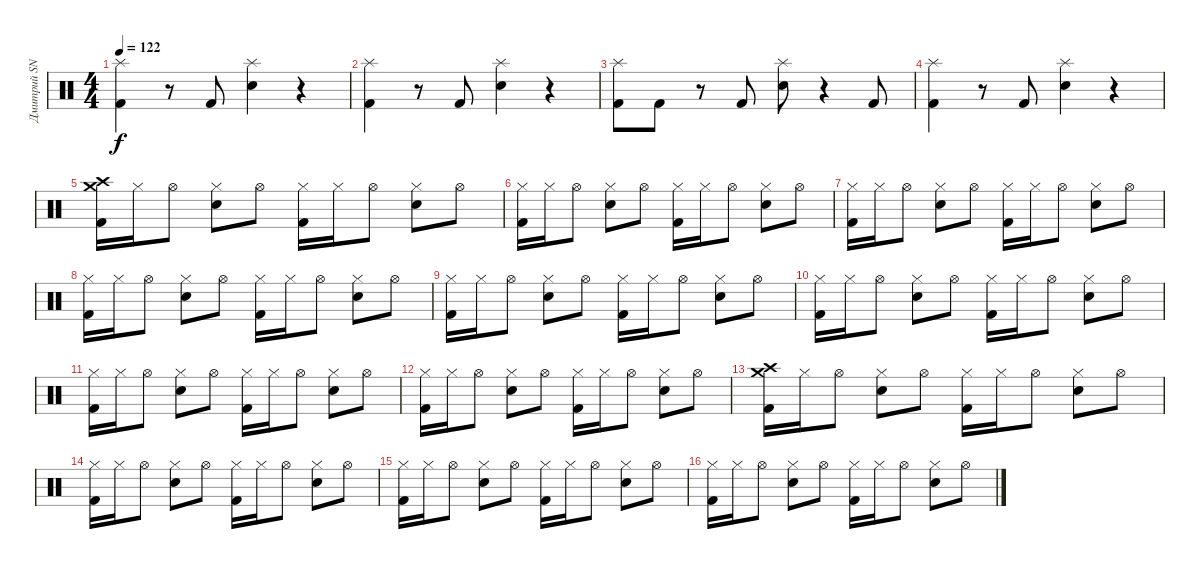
\track ("Дмитрий SNAKE Хакимов" "Дмитрий SN") {instrument percussion}
\staff {score}
\articulation defaults
\ts (4 4)
\tempo 122
\clef neutral
\ks c
("Splash (hit)" "Kick (hit) 2").4{dy f} r.8 "Kick (hit) 2".8 ("Splash (hit)" "Snare (hit) 2").4 r.4 |
("Splash (hit)" "Kick (hit) 2").4 r.8 "Kick (hit) 2".8 ("Splash (hit)" "Snare (hit) 2").4 r.4 |
("Splash (hit)" "Kick (hit) 2").8 "Kick (hit) 2".8 r.8 "Kick (hit) 2".8 ("Splash (hit)" "Snare (hit) 2").8 r.4 "Kick (hit) 2".8 |
("Splash (hit)" "Kick (hit) 2").4 r.8 "Kick (hit) 2".8 ("Splash (hit)" "Snare (hit) 2").4 r.4 |
("Crash high (hit)" "Crash medium (hit)" "Kick (hit) 2").16 "Hi-Hat (closed)".16 "Hi-Hat (open)".8 ("Hi-Hat (closed)" "Snare (hit) 2").8 "Hi-Hat (open)".8 ("Hi-Hat (closed)" "Kick (hit) 2").16 "Hi-Hat (closed)".16 "Hi-Hat (open)".8 ("Hi-Hat (closed)" "Snare (hit) 2").8 "Hi-Hat (open)".8 |
("Hi-Hat (closed)" "Kick (hit) 2").16 "Hi-Hat (closed)".16 "Hi-Hat (open)".8 ("Hi-Hat (closed)" "Snare (hit) 2").8 "Hi-Hat (open)".8 ("Hi-Hat (closed)" "Kick (hit) 2").16 "Hi-Hat (closed)".16 "Hi-Hat (open)".8 ("Hi-Hat (closed)" "Snare (hit) 2").8 "Hi-Hat (open)".8 |
("Hi-Hat (closed)" "Kick (hit) 2").16 "Hi-Hat (closed)".16 "Hi-Hat (open)".8 ("Hi-Hat (closed)" "Snare (hit) 2").8 "Hi-Hat (open)".8 ("Hi-Hat (closed)" "Kick (hit) 2").16 "Hi-Hat (closed)".16 "Hi-Hat (open)".8 ("Hi-Hat (closed)" "Snare (hit) 2").8 "Hi-Hat (open)".8 |
("Hi-Hat (closed)" "Kick (hit) 2").16 "Hi-Hat (closed)".16 "Hi-Hat (open)".8 ("Hi-Hat (closed)" "Snare (hit) 2").8 "Hi-Hat (open)".8 ("Hi-Hat (closed)" "Kick (hit) 2").16 "Hi-Hat (closed)".16 "Hi-Hat (open)".8 ("Hi-Hat (closed)" "Snare (hit) 2").8 "Hi-Hat (open)".8 |
("Hi-Hat (closed)" "Kick (hit) 2").16 "Hi-Hat (closed)".16 "Hi-Hat (open)".8 ("Hi-Hat (closed)" "Snare (hit) 2").8 "Hi-Hat (open)".8 ("Hi-Hat (closed)" "Kick (hit) 2").16 "Hi-Hat (closed)".16 "Hi-Hat (open)".8 ("Hi-Hat (closed)" "Snare (hit) 2").8 "Hi-Hat (open)".8 |
("Hi-Hat (closed)" "Kick (hit) 2").16 "Hi-Hat (closed)".16 "Hi-Hat (open)".8 ("Hi-Hat (closed)" "Snare (hit) 2").8 "Hi-Hat (open)".8 ("Hi-Hat (closed)" "Kick (hit) 2").16 "Hi-Hat (closed)".16 "Hi-Hat (open)".8 ("Hi-Hat (closed)" "Snare (hit) 2").8 "Hi-Hat (open)".8 |
("Hi-Hat (closed)" "Kick (hit) 2").16 "Hi-Hat (closed)".16 "Hi-Hat (open)".8 ("Hi-Hat (closed)" "Snare (hit) 2").8 "Hi-Hat (open)".8 ("Hi-Hat (closed)" "Kick (hit) 2").16 "Hi-Hat (closed)".16 "Hi-Hat (open)".8 ("Hi-Hat (closed)" "Snare (hit) 2").8 "Hi-Hat (open)".8 |
("Hi-Hat (closed)" "Kick (hit) 2").16 "Hi-Hat (closed)".16 "Hi-Hat (open)".8 ("Hi-Hat (closed)" "Snare (hit) 2").8 "Hi-Hat (open)".8 ("Hi-Hat (closed)" "Kick (hit) 2").16 "Hi-Hat (closed)".16 "Hi-Hat (open)".8 ("Hi-Hat (closed)" "Snare (hit) 2").8 "Hi-Hat (open)".8 |
("Crash high (hit)" "Crash medium (hit)" "Kick (hit) 2").16 "Hi-Hat (closed)".16 "Hi-Hat (open)".8 ("Hi-Hat (closed)" "Snare (hit) 2").8 "Hi-Hat (open)".8 ("Hi-Hat (closed)" "Kick (hit) 2").16 "Hi-Hat (closed)".16 "Hi-Hat (open)".8 ("Hi-Hat (closed)" "Snare (hit) 2").8 "Hi-Hat (open)".8 |
("Hi-Hat (closed)" "Kick (hit) 2").16 "Hi-Hat (closed)".16 "Hi-Hat (open)".8 ("Hi-Hat (closed)" "Snare (hit) 2").8 "Hi-Hat (open)".8 ("Hi-Hat (closed)" "Kick (hit) 2").16 "Hi-Hat (closed)".16 "Hi-Hat (open)".8 ("Hi-Hat (closed)" "Snare (hit) 2").8 "Hi-Hat (open)".8 |
("Hi-Hat (closed)" "Kick (hit) 2").16 "Hi-Hat (closed)".16 "Hi-Hat (open)".8 ("Hi-Hat (closed)" "Snare (hit) 2").8 "Hi-Hat (open)".8 ("Hi-Hat (closed)" "Kick (hit) 2").16 "Hi-Hat (closed)".16 "Hi-Hat (open)".8 ("Hi-Hat (closed)" "Snare (hit) 2").8 "Hi-Hat (open)".8 |
("Hi-Hat (closed)" "Kick (hit) 2").16 "Hi-Hat (closed)".16 "Hi-Hat (open)".8 ("Hi-Hat (closed)" "Snare (hit) 2").8 "Hi-Hat (open)".8 ("Hi-Hat (closed)" "Kick (hit) 2").16 "Hi-Hat (closed)".16 "Hi-Hat (open)".8 ("Hi-Hat (closed)" "Snare (hit) 2").8 "Hi-Hat (open)".8
